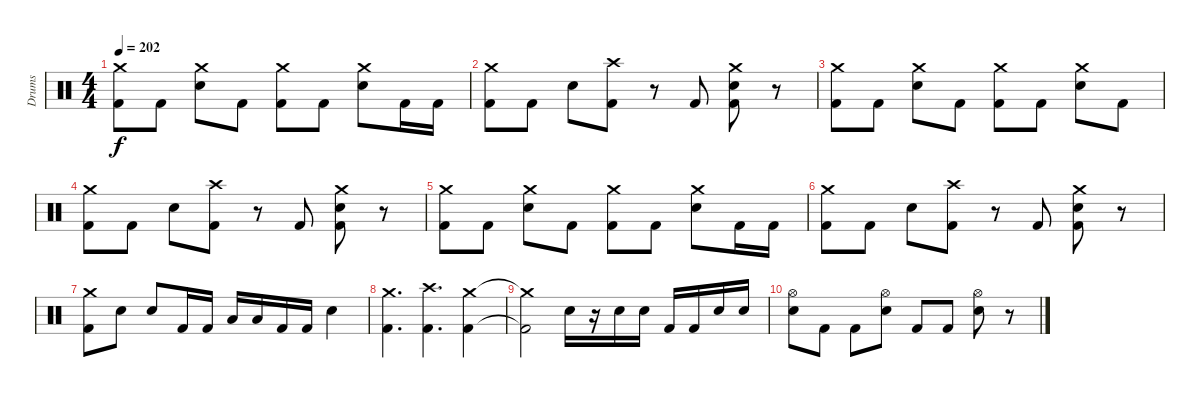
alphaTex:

\track ("Drums" "Drums") {instrument percussion}
\staff {score}
\articulation defaults
\ts (4 4)
\tempo 202
\clef neutral
\ks c
("Crash medium (hit)" "Kick (hit) 2").8{dy f} "Kick (hit) 2".8 ("Crash medium (hit)" "Electric Snare (hit)").8 "Kick (hit) 2".8 ("Crash medium (hit)" "Kick (hit) 2").8 "Kick (hit) 2".8 ("Crash medium (hit)" "Electric Snare (hit)").8 "Kick (hit) 2".16 "Kick (hit) 2".16 |
("Crash medium (hit)" "Kick (hit) 2").8 "Kick (hit) 2".8 "Electric Snare (hit)".8 ("Crash high (hit)" "Kick (hit) 2").8 r.8 "Kick (hit) 2".8 ("Crash medium (hit)" "Electric Snare (hit)" "Kick (hit) 2").8 r.8 |
("Crash medium (hit)" "Kick (hit) 2").8 "Kick (hit) 2".8 ("Crash medium (hit)" "Electric Snare (hit)").8 "Kick (hit) 2".8 ("Crash medium (hit)" "Kick (hit) 2").8 "Kick (hit) 2".8 ("Crash medium (hit)" "Electric Snare (hit)").8 "Kick (hit) 2".8 |
("Crash medium (hit)" "Kick (hit) 2").8 "Kick (hit) 2".8 "Electric Snare (hit)".8 ("Crash high (hit)" "Kick (hit) 2").8 r.8 "Kick (hit) 2".8 ("Crash medium (hit)" "Electric Snare (hit)" "Kick (hit) 2").8 r.8 |
("Crash medium (hit)" "Kick (hit) 2").8 "Kick (hit) 2".8 ("Crash medium (hit)" "Electric Snare (hit)").8 "Kick (hit) 2".8 ("Crash medium (hit)" "Kick (hit) 2").8 "Kick (hit) 2".8 ("Crash medium (hit)" "Electric Snare (hit)").8 "Kick (hit) 2".16 "Kick (hit) 2".16 |
("Crash medium (hit)" "Kick (hit) 2").8 "Kick (hit) 2".8 "Electric Snare (hit)".8 ("Crash high (hit)" "Kick (hit) 2").8 r.8 "Kick (hit) 2".8 ("Crash medium (hit)" "Electric Snare (hit)" "Kick (hit) 2").8 r.8 |
("Crash medium (hit)" "Kick (hit) 2").8 "Electric Snare (hit)".8 "Electric Snare (hit)".8 "Kick (hit) 2".16 "Kick (hit) 2".16 "Low Tom (hit)".16 "Low Tom (hit)".16 "Kick (hit) 2".16 "Kick (hit) 2".16 "Electric Snare (hit)".4 |
("Crash medium (hit)" "Kick (hit) 2").4{d} ("Crash high (hit)" "Kick (hit) 2").4{d} ("Crash medium (hit)" "Kick (hit) 2").4 |
("Crash medium (hit)"{t} "Kick (hit) 2"{t}).2 "Electric Snare (hit)".16 r.16 "Electric Snare (hit)".16 "Electric Snare (hit)".16 "Kick (hit) 2".16 "Kick (hit) 2".16 "Electric Snare (hit)".16 "Electric Snare (hit)".16 |
("Hi-Hat (open)" "Electric Snare (hit)").8 "Kick (hit) 2".8 "Kick (hit) 2".8 ("Hi-Hat (open)" "Electric Snare (hit)").8 "Kick (hit) 2".8 "Kick (hit) 2".8 ("Hi-Hat (open)" "Electric Snare (hit)").8 r.8
